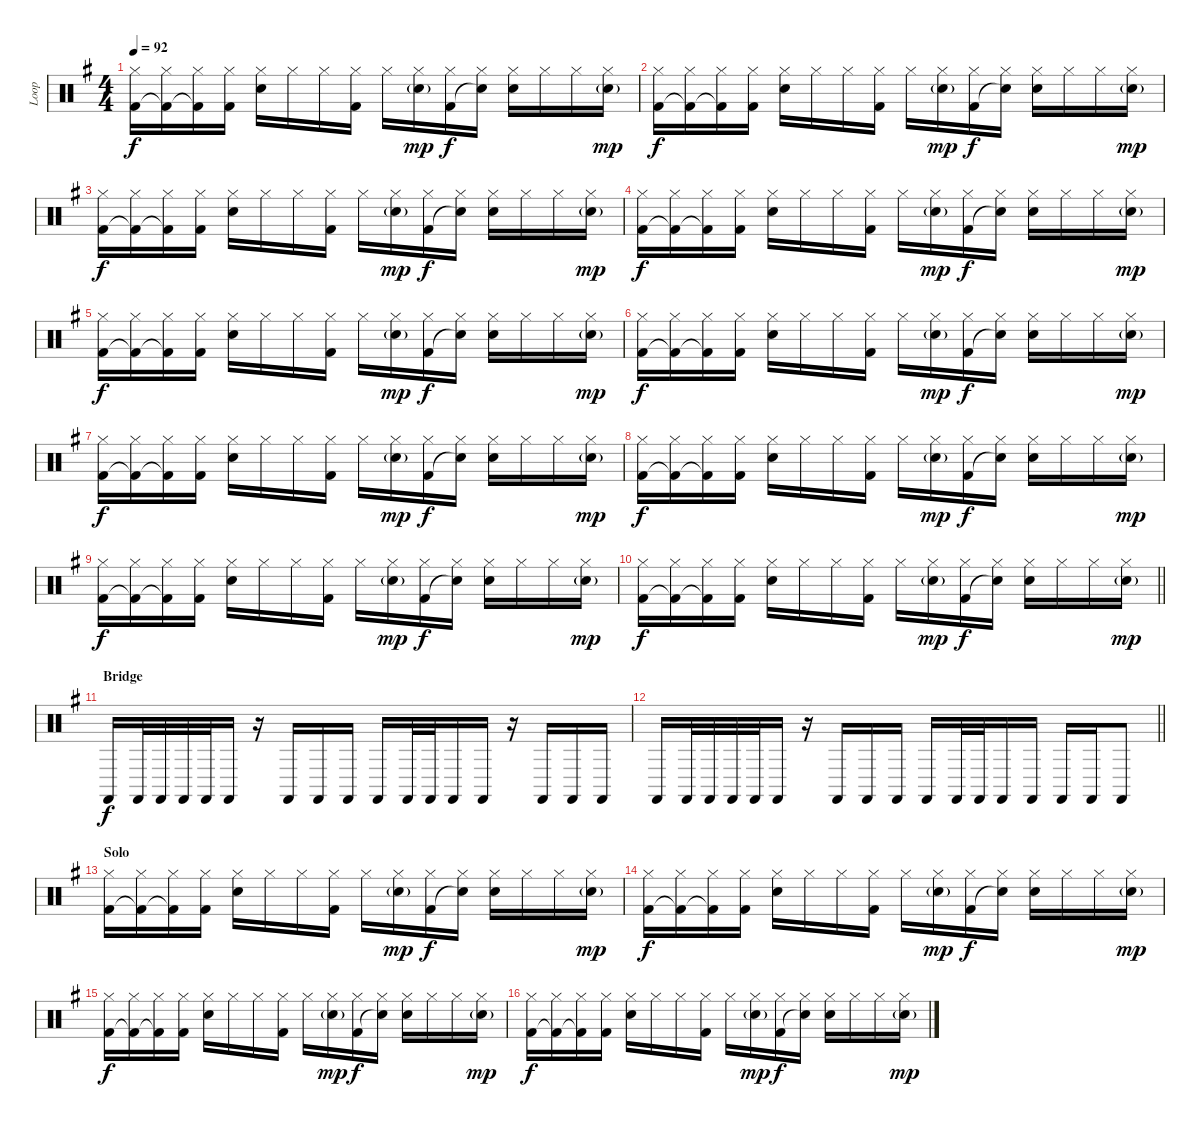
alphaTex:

\track ("Loop" "Loop") {instrument percussion}
\staff {score}
\articulation defaults
\ts (4 4)
\tempo 92
\clef neutral
\ks g
("Hi-Hat (closed)" "Kick (hit) 2").16{dy f} ("Hi-Hat (closed)" "Kick (hit) 2"{t}).16 ("Hi-Hat (closed)" "Kick (hit) 2"{t}).16 ("Hi-Hat (closed)" "Kick (hit) 2").16 ("Hi-Hat (closed)" "Electric Snare (hit)").16 "Hi-Hat (closed)".16 "Hi-Hat (closed)".16 ("Hi-Hat (closed)" "Kick (hit) 2").16 "Hi-Hat (closed)".16 ("Hi-Hat (closed)" "Electric Snare (hit)"{g}).16{dy mp} ("Hi-Hat (closed)" "Kick (hit) 2").16{dy f} ("Hi-Hat (closed)" "Snare (hit)"{t}).16 ("Hi-Hat (closed)" "Electric Snare (hit)").16 "Hi-Hat (closed)".16 "Hi-Hat (closed)".16 ("Hi-Hat (closed)" "Electric Snare (hit)"{g}).16{dy mp} |
("Hi-Hat (closed)" "Kick (hit) 2").16{dy f} ("Hi-Hat (closed)" "Kick (hit) 2"{t}).16 ("Hi-Hat (closed)" "Kick (hit) 2"{t}).16 ("Hi-Hat (closed)" "Kick (hit) 2").16 ("Hi-Hat (closed)" "Electric Snare (hit)").16 "Hi-Hat (closed)".16 "Hi-Hat (closed)".16 ("Hi-Hat (closed)" "Kick (hit) 2").16 "Hi-Hat (closed)".16 ("Hi-Hat (closed)" "Electric Snare (hit)"{g}).16{dy mp} ("Hi-Hat (closed)" "Kick (hit) 2").16{dy f} ("Hi-Hat (closed)" "Snare (hit)"{t}).16 ("Hi-Hat (closed)" "Electric Snare (hit)").16 "Hi-Hat (closed)".16 "Hi-Hat (closed)".16 ("Hi-Hat (closed)" "Electric Snare (hit)"{g}).16{dy mp} |
("Hi-Hat (closed)" "Kick (hit) 2").16{dy f} ("Hi-Hat (closed)" "Kick (hit) 2"{t}).16 ("Hi-Hat (closed)" "Kick (hit) 2"{t}).16 ("Hi-Hat (closed)" "Kick (hit) 2").16 ("Hi-Hat (closed)" "Electric Snare (hit)").16 "Hi-Hat (closed)".16 "Hi-Hat (closed)".16 ("Hi-Hat (closed)" "Kick (hit) 2").16 "Hi-Hat (closed)".16 ("Hi-Hat (closed)" "Electric Snare (hit)"{g}).16{dy mp} ("Hi-Hat (closed)" "Kick (hit) 2").16{dy f} ("Hi-Hat (closed)" "Snare (hit)"{t}).16 ("Hi-Hat (closed)" "Electric Snare (hit)").16 "Hi-Hat (closed)".16 "Hi-Hat (closed)".16 ("Hi-Hat (closed)" "Electric Snare (hit)"{g}).16{dy mp} |
("Hi-Hat (closed)" "Kick (hit) 2").16{dy f} ("Hi-Hat (closed)" "Kick (hit) 2"{t}).16 ("Hi-Hat (closed)" "Kick (hit) 2"{t}).16 ("Hi-Hat (closed)" "Kick (hit) 2").16 ("Hi-Hat (closed)" "Electric Snare (hit)").16 "Hi-Hat (closed)".16 "Hi-Hat (closed)".16 ("Hi-Hat (closed)" "Kick (hit) 2").16 "Hi-Hat (closed)".16 ("Hi-Hat (closed)" "Electric Snare (hit)"{g}).16{dy mp} ("Hi-Hat (closed)" "Kick (hit) 2").16{dy f} ("Hi-Hat (closed)" "Snare (hit)"{t}).16 ("Hi-Hat (closed)" "Electric Snare (hit)").16 "Hi-Hat (closed)".16 "Hi-Hat (closed)".16 ("Hi-Hat (closed)" "Electric Snare (hit)"{g}).16{dy mp} |
("Hi-Hat (closed)" "Kick (hit) 2").16{dy f} ("Hi-Hat (closed)" "Kick (hit) 2"{t}).16 ("Hi-Hat (closed)" "Kick (hit) 2"{t}).16 ("Hi-Hat (closed)" "Kick (hit) 2").16 ("Hi-Hat (closed)" "Electric Snare (hit)").16 "Hi-Hat (closed)".16 "Hi-Hat (closed)".16 ("Hi-Hat (closed)" "Kick (hit) 2").16 "Hi-Hat (closed)".16 ("Hi-Hat (closed)" "Electric Snare (hit)"{g}).16{dy mp} ("Hi-Hat (closed)" "Kick (hit) 2").16{dy f} ("Hi-Hat (closed)" "Snare (hit)"{t}).16 ("Hi-Hat (closed)" "Electric Snare (hit)").16 "Hi-Hat (closed)".16 "Hi-Hat (closed)".16 ("Hi-Hat (closed)" "Electric Snare (hit)"{g}).16{dy mp} |
("Hi-Hat (closed)" "Kick (hit) 2").16{dy f} ("Hi-Hat (closed)" "Kick (hit) 2"{t}).16 ("Hi-Hat (closed)" "Kick (hit) 2"{t}).16 ("Hi-Hat (closed)" "Kick (hit) 2").16 ("Hi-Hat (closed)" "Electric Snare (hit)").16 "Hi-Hat (closed)".16 "Hi-Hat (closed)".16 ("Hi-Hat (closed)" "Kick (hit) 2").16 "Hi-Hat (closed)".16 ("Hi-Hat (closed)" "Electric Snare (hit)"{g}).16{dy mp} ("Hi-Hat (closed)" "Kick (hit) 2").16{dy f} ("Hi-Hat (closed)" "Snare (hit)"{t}).16 ("Hi-Hat (closed)" "Electric Snare (hit)").16 "Hi-Hat (closed)".16 "Hi-Hat (closed)".16 ("Hi-Hat (closed)" "Electric Snare (hit)"{g}).16{dy mp} |
("Hi-Hat (closed)" "Kick (hit) 2").16{dy f} ("Hi-Hat (closed)" "Kick (hit) 2"{t}).16 ("Hi-Hat (closed)" "Kick (hit) 2"{t}).16 ("Hi-Hat (closed)" "Kick (hit) 2").16 ("Hi-Hat (closed)" "Electric Snare (hit)").16 "Hi-Hat (closed)".16 "Hi-Hat (closed)".16 ("Hi-Hat (closed)" "Kick (hit) 2").16 "Hi-Hat (closed)".16 ("Hi-Hat (closed)" "Electric Snare (hit)"{g}).16{dy mp} ("Hi-Hat (closed)" "Kick (hit) 2").16{dy f} ("Hi-Hat (closed)" "Snare (hit)"{t}).16 ("Hi-Hat (closed)" "Electric Snare (hit)").16 "Hi-Hat (closed)".16 "Hi-Hat (closed)".16 ("Hi-Hat (closed)" "Electric Snare (hit)"{g}).16{dy mp} |
("Hi-Hat (closed)" "Kick (hit) 2").16{dy f} ("Hi-Hat (closed)" "Kick (hit) 2"{t}).16 ("Hi-Hat (closed)" "Kick (hit) 2"{t}).16 ("Hi-Hat (closed)" "Kick (hit) 2").16 ("Hi-Hat (closed)" "Electric Snare (hit)").16 "Hi-Hat (closed)".16 "Hi-Hat (closed)".16 ("Hi-Hat (closed)" "Kick (hit) 2").16 "Hi-Hat (closed)".16 ("Hi-Hat (closed)" "Electric Snare (hit)"{g}).16{dy mp} ("Hi-Hat (closed)" "Kick (hit) 2").16{dy f} ("Hi-Hat (closed)" "Snare (hit)"{t}).16 ("Hi-Hat (closed)" "Electric Snare (hit)").16 "Hi-Hat (closed)".16 "Hi-Hat (closed)".16 ("Hi-Hat (closed)" "Electric Snare (hit)"{g}).16{dy mp} |
("Hi-Hat (closed)" "Kick (hit) 2").16{dy f} ("Hi-Hat (closed)" "Kick (hit) 2"{t}).16 ("Hi-Hat (closed)" "Kick (hit) 2"{t}).16 ("Hi-Hat (closed)" "Kick (hit) 2").16 ("Hi-Hat (closed)" "Electric Snare (hit)").16 "Hi-Hat (closed)".16 "Hi-Hat (closed)".16 ("Hi-Hat (closed)" "Kick (hit) 2").16 "Hi-Hat (closed)".16 ("Hi-Hat (closed)" "Electric Snare (hit)"{g}).16{dy mp} ("Hi-Hat (closed)" "Kick (hit) 2").16{dy f} ("Hi-Hat (closed)" "Snare (hit)"{t}).16 ("Hi-Hat (closed)" "Electric Snare (hit)").16 "Hi-Hat (closed)".16 "Hi-Hat (closed)".16 ("Hi-Hat (closed)" "Electric Snare (hit)"{g}).16{dy mp} |
\barLineRight lightlight
("Hi-Hat (closed)" "Kick (hit) 2").16{dy f} ("Hi-Hat (closed)" "Kick (hit) 2"{t}).16 ("Hi-Hat (closed)" "Kick (hit) 2"{t}).16 ("Hi-Hat (closed)" "Kick (hit) 2").16 ("Hi-Hat (closed)" "Electric Snare (hit)").16 "Hi-Hat (closed)".16 "Hi-Hat (closed)".16 ("Hi-Hat (closed)" "Kick (hit) 2").16 "Hi-Hat (closed)".16 ("Hi-Hat (closed)" "Electric Snare (hit)"{g}).16{dy mp} ("Hi-Hat (closed)" "Kick (hit) 2").16{dy f} ("Hi-Hat (closed)" "Snare (hit)"{t}).16 ("Hi-Hat (closed)" "Electric Snare (hit)").16 "Hi-Hat (closed)".16 "Hi-Hat (closed)".16 ("Hi-Hat (closed)" "Electric Snare (hit)"{g}).16{dy mp} |
\section ("" "Bridge")
"Castanets (hit)".16{dy f} "Castanets (hit)".32 "Castanets (hit)".32 "Castanets (hit)".32 "Castanets (hit)".32 "Castanets (hit)".16 r.16 "Castanets (hit)".16 "Castanets (hit)".16 "Castanets (hit)".16 "Castanets (hit)".16 "Castanets (hit)".32 "Castanets (hit)".32 "Castanets (hit)".16 "Castanets (hit)".16 r.16 "Castanets (hit)".16 "Castanets (hit)".16 "Castanets (hit)".16 |
\barLineRight lightlight "Castanets (hit)".16 "Castanets (hit)".32 "Castanets (hit)".32 "Castanets (hit)".32 "Castanets (hit)".32 "Castanets (hit)".16
r.16 "Castanets (hit)".16 "Castanets (hit)".16 "Castanets (hit)".16 "Castanets (hit)".16 "Castanets (hit)".32 "Castanets (hit)".32 "Castanets (hit)".16 "Castanets (hit)".16 "Castanets (hit)".16 "Castanets (hit)".16 "Castanets (hit)".8 |
\section ("" "Solo")
("Hi-Hat (closed)" "Kick (hit) 2").16 ("Hi-Hat (closed)" "Kick (hit) 2"{t}).16 ("Hi-Hat (closed)" "Kick (hit) 2"{t}).16 ("Hi-Hat (closed)" "Kick (hit) 2").16 ("Hi-Hat (closed)" "Electric Snare (hit)").16 "Hi-Hat (closed)".16 "Hi-Hat (closed)".16 ("Hi-Hat (closed)" "Kick (hit) 2").16 "Hi-Hat (closed)".16 ("Hi-Hat (closed)" "Electric Snare (hit)"{g}).16{dy mp} ("Hi-Hat (closed)" "Kick (hit) 2").16{dy f} ("Hi-Hat (closed)" "Snare (hit)"{t}).16 ("Hi-Hat (closed)" "Electric Snare (hit)").16 "Hi-Hat (closed)".16 "Hi-Hat (closed)".16 ("Hi-Hat (closed)" "Electric Snare (hit)"{g}).16{dy mp} |
("Hi-Hat (closed)" "Kick (hit) 2").16{dy f} ("Hi-Hat (closed)" "Kick (hit) 2"{t}).16 ("Hi-Hat (closed)" "Kick (hit) 2"{t}).16 ("Hi-Hat (closed)" "Kick (hit) 2").16 ("Hi-Hat (closed)" "Electric Snare (hit)").16 "Hi-Hat (closed)".16 "Hi-Hat (closed)".16 ("Hi-Hat (closed)" "Kick (hit) 2").16 "Hi-Hat (closed)".16 ("Hi-Hat (closed)" "Electric Snare (hit)"{g}).16{dy mp} ("Hi-Hat (closed)" "Kick (hit) 2").16{dy f} ("Hi-Hat (closed)" "Snare (hit)"{t}).16 ("Hi-Hat (closed)" "Electric Snare (hit)").16 "Hi-Hat (closed)".16 "Hi-Hat (closed)".16 ("Hi-Hat (closed)" "Electric Snare (hit)"{g}).16{dy mp} |
("Hi-Hat (closed)" "Kick (hit) 2").16{dy f} ("Hi-Hat (closed)" "Kick (hit) 2"{t}).16 ("Hi-Hat (closed)" "Kick (hit) 2"{t}).16 ("Hi-Hat (closed)" "Kick (hit) 2").16 ("Hi-Hat (closed)" "Electric Snare (hit)").16 "Hi-Hat (closed)".16 "Hi-Hat (closed)".16 ("Hi-Hat (closed)" "Kick (hit) 2").16 "Hi-Hat (closed)".16 ("Hi-Hat (closed)" "Electric Snare (hit)"{g}).16{dy mp} ("Hi-Hat (closed)" "Kick (hit) 2").16{dy f} ("Hi-Hat (closed)" "Snare (hit)"{t}).16 ("Hi-Hat (closed)" "Electric Snare (hit)").16 "Hi-Hat (closed)".16 "Hi-Hat (closed)".16 ("Hi-Hat (closed)" "Electric Snare (hit)"{g}).16{dy mp} |
("Hi-Hat (closed)" "Kick (hit) 2").16{dy f} ("Hi-Hat (closed)" "Kick (hit) 2"{t}).16 ("Hi-Hat (closed)" "Kick (hit) 2"{t}).16 ("Hi-Hat (closed)" "Kick (hit) 2").16 ("Hi-Hat (closed)" "Electric Snare (hit)").16 "Hi-Hat (closed)".16 "Hi-Hat (closed)".16 ("Hi-Hat (closed)" "Kick (hit) 2").16 "Hi-Hat (closed)".16 ("Hi-Hat (closed)" "Electric Snare (hit)"{g}).16{dy mp} ("Hi-Hat (closed)" "Kick (hit) 2").16{dy f} ("Hi-Hat (closed)" "Snare (hit)"{t}).16 ("Hi-Hat (closed)" "Electric Snare (hit)").16 "Hi-Hat (closed)".16 "Hi-Hat (closed)".16 ("Hi-Hat (closed)" "Electric Snare (hit)"{g}).16{dy mp}
